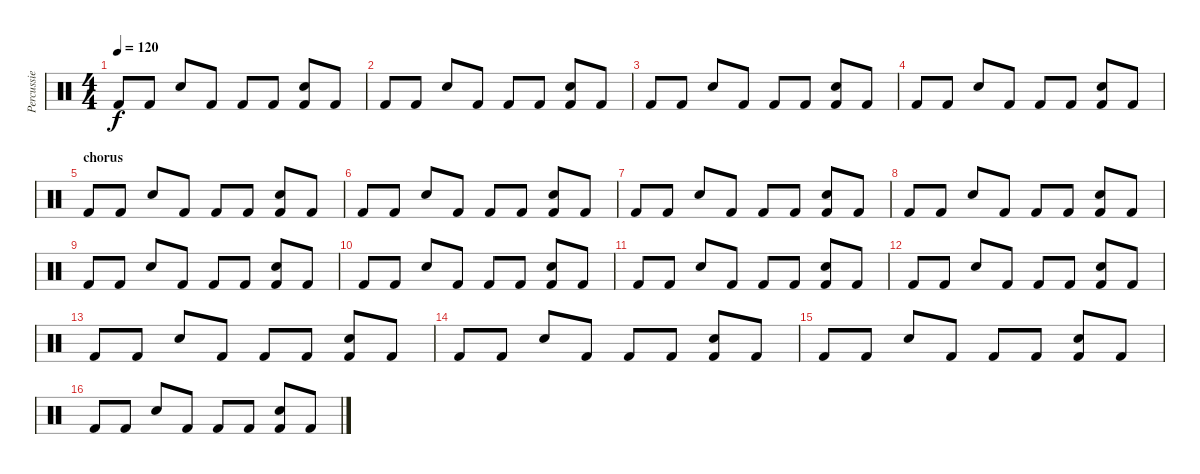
\track ("Percussie" "Percussie") {instrument percussion}
\staff {score}
\articulation defaults
\ts (4 4)
\tempo 120
\clef neutral
\ks c "Kick (hit) 2".8{dy f} "Kick (hit) 2".8 "Snare (hit) 2".8 "Kick (hit) 2".8 "Kick (hit) 2".8 "Kick (hit) 2".8
("Snare (hit) 2" "Kick (hit) 2").8 "Kick (hit) 2".8 |
"Kick (hit) 2".8 "Kick (hit) 2".8 "Snare (hit) 2".8 "Kick (hit) 2".8 "Kick (hit) 2".8 "Kick (hit) 2".8 ("Snare (hit) 2" "Kick (hit) 2").8 "Kick (hit) 2".8 |
"Kick (hit) 2".8 "Kick (hit) 2".8 "Snare (hit) 2".8 "Kick (hit) 2".8 "Kick (hit) 2".8 "Kick (hit) 2".8 ("Snare (hit) 2" "Kick (hit) 2").8 "Kick (hit) 2".8 |
"Kick (hit) 2".8 "Kick (hit) 2".8 "Snare (hit) 2".8 "Kick (hit) 2".8 "Kick (hit) 2".8 "Kick (hit) 2".8 ("Snare (hit) 2" "Kick (hit) 2").8 "Kick (hit) 2".8 |
\section ("" "chorus")
"Kick (hit) 2".8 "Kick (hit) 2".8 "Snare (hit) 2".8 "Kick (hit) 2".8 "Kick (hit) 2".8 "Kick (hit) 2".8 ("Snare (hit) 2" "Kick (hit) 2").8 "Kick (hit) 2".8 |
"Kick (hit) 2".8 "Kick (hit) 2".8 "Snare (hit) 2".8 "Kick (hit) 2".8 "Kick (hit) 2".8 "Kick (hit) 2".8 ("Snare (hit) 2" "Kick (hit) 2").8 "Kick (hit) 2".8 |
"Kick (hit) 2".8 "Kick (hit) 2".8 "Snare (hit) 2".8 "Kick (hit) 2".8 "Kick (hit) 2".8 "Kick (hit) 2".8 ("Snare (hit) 2" "Kick (hit) 2").8 "Kick (hit) 2".8 |
"Kick (hit) 2".8 "Kick (hit) 2".8 "Snare (hit) 2".8 "Kick (hit) 2".8 "Kick (hit) 2".8 "Kick (hit) 2".8 ("Snare (hit) 2" "Kick (hit) 2").8 "Kick (hit) 2".8 |
"Kick (hit) 2".8 "Kick (hit) 2".8 "Snare (hit) 2".8 "Kick (hit) 2".8 "Kick (hit) 2".8 "Kick (hit) 2".8 ("Snare (hit) 2" "Kick (hit) 2").8 "Kick (hit) 2".8 |
"Kick (hit) 2".8 "Kick (hit) 2".8 "Snare (hit) 2".8 "Kick (hit) 2".8 "Kick (hit) 2".8 "Kick (hit) 2".8 ("Snare (hit) 2" "Kick (hit) 2").8 "Kick (hit) 2".8 |
"Kick (hit) 2".8 "Kick (hit) 2".8 "Snare (hit) 2".8 "Kick (hit) 2".8 "Kick (hit) 2".8 "Kick (hit) 2".8 ("Snare (hit) 2" "Kick (hit) 2").8 "Kick (hit) 2".8 |
"Kick (hit) 2".8 "Kick (hit) 2".8 "Snare (hit) 2".8 "Kick (hit) 2".8 "Kick (hit) 2".8 "Kick (hit) 2".8 ("Snare (hit) 2" "Kick (hit) 2").8 "Kick (hit) 2".8 |
"Kick (hit) 2".8 "Kick (hit) 2".8 "Snare (hit) 2".8 "Kick (hit) 2".8 "Kick (hit) 2".8 "Kick (hit) 2".8 ("Snare (hit) 2" "Kick (hit) 2").8 "Kick (hit) 2".8 |
"Kick (hit) 2".8 "Kick (hit) 2".8 "Snare (hit) 2".8 "Kick (hit) 2".8 "Kick (hit) 2".8 "Kick (hit) 2".8 ("Snare (hit) 2" "Kick (hit) 2").8 "Kick (hit) 2".8 |
"Kick (hit) 2".8 "Kick (hit) 2".8 "Snare (hit) 2".8 "Kick (hit) 2".8 "Kick (hit) 2".8 "Kick (hit) 2".8 ("Snare (hit) 2" "Kick (hit) 2").8 "Kick (hit) 2".8 |
"Kick (hit) 2".8 "Kick (hit) 2".8 "Snare (hit) 2".8 "Kick (hit) 2".8 "Kick (hit) 2".8 "Kick (hit) 2".8 ("Snare (hit) 2" "Kick (hit) 2").8 "Kick (hit) 2".8
